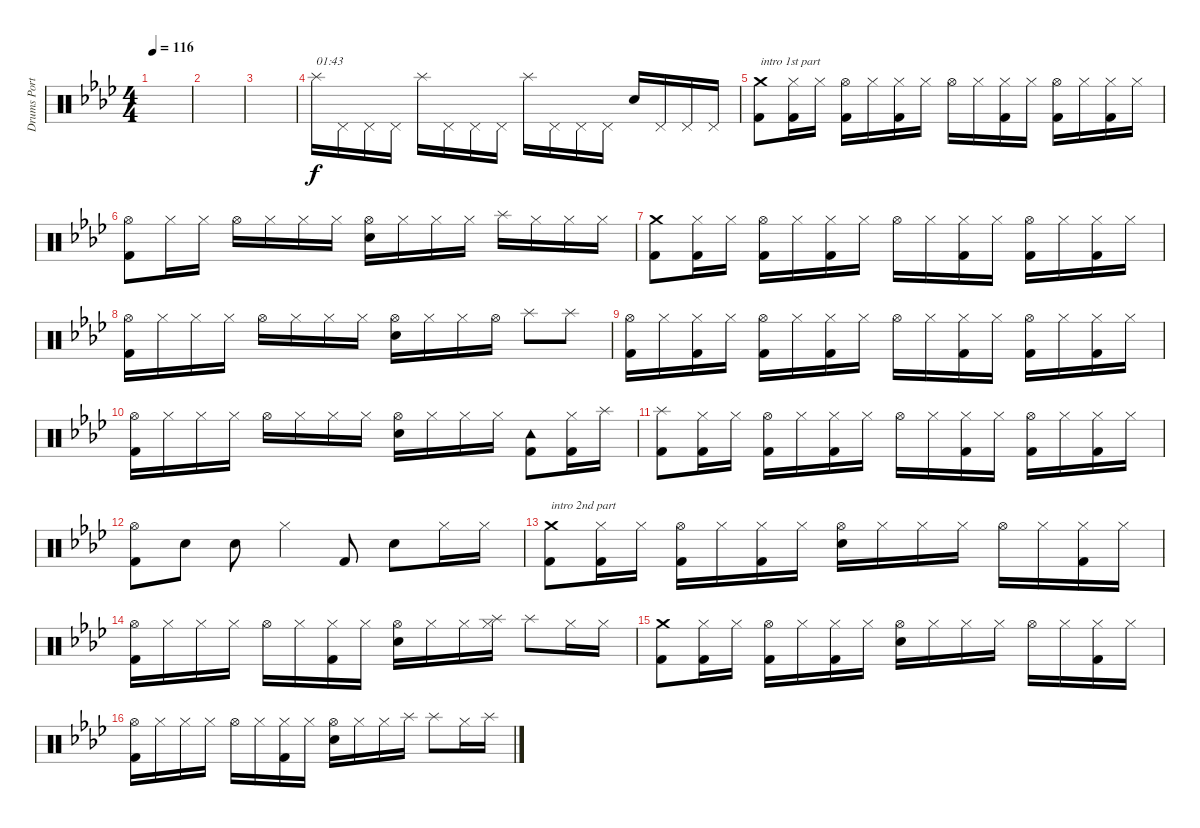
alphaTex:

\track ("Drums Portnoy" "Drums Port") {instrument percussion}
\staff {score}
\articulation defaults
\ts (4 4)
\tempo 116
\clef neutral
\ks ab
|
|
|
"Splash (hit)".16{txt "01:43"} "Pedal Hi-Hat (hit)".16 "Pedal Hi-Hat (hit)".16 "Pedal Hi-Hat (hit)".16 "Splash (hit)".16 "Pedal Hi-Hat (hit)".16 "Pedal Hi-Hat (hit)".16 "Pedal Hi-Hat (hit)".16 "Splash (hit)".16 "Pedal Hi-Hat (hit)".16 "Pedal Hi-Hat (hit)".16 "Pedal Hi-Hat (hit)".16 "Snare (hit) 2".16 "Pedal Hi-Hat (hit)".16 "Pedal Hi-Hat (hit)".16 "Pedal Hi-Hat (hit)".16 |
("Crash medium (hit)" "Kick (hit) 2").8{txt "intro 1st part"} ("Hi-Hat (closed)" "Kick (hit) 2").16 "Hi-Hat (closed)".16 ("Hi-Hat (open)" "Kick (hit) 2").16 "Hi-Hat (closed)".16 ("Hi-Hat (closed)" "Kick (hit) 2").16 "Hi-Hat (closed)".16 "Hi-Hat (open)".16 "Hi-Hat (closed)".16 ("Hi-Hat (closed)" "Kick (hit) 2").16 "Hi-Hat (closed)".16 ("Hi-Hat (open)" "Kick (hit) 2").16 "Hi-Hat (closed)".16 ("Hi-Hat (closed)" "Kick (hit) 2").16 "Hi-Hat (closed)".16 |
("Hi-Hat (open)" "Kick (hit) 2").8 "Hi-Hat (closed)".16 "Hi-Hat (closed)".16 "Hi-Hat (open)".16 "Hi-Hat (closed)".16 "Hi-Hat (closed)".16 "Hi-Hat (closed)".16 ("Hi-Hat (open)" "Snare (hit) 2").16 "Hi-Hat (closed)".16 "Hi-Hat (closed)".16 "Hi-Hat (closed)".16 "Splash (hit)".16 "Hi-Hat (closed)".16 "Hi-Hat (closed)".16 "Hi-Hat (closed)".16 |
("Crash medium (hit)" "Kick (hit) 2").8 ("Hi-Hat (closed)" "Kick (hit) 2").16 "Hi-Hat (closed)".16 ("Hi-Hat (open)" "Kick (hit) 2").16 "Hi-Hat (closed)".16 ("Hi-Hat (closed)" "Kick (hit) 2").16 "Hi-Hat (closed)".16 "Hi-Hat (open)".16 "Hi-Hat (closed)".16 ("Hi-Hat (closed)" "Kick (hit) 2").16 "Hi-Hat (closed)".16 ("Hi-Hat (open)" "Kick (hit) 2").16 "Hi-Hat (closed)".16 ("Hi-Hat (closed)" "Kick (hit) 2").16 "Hi-Hat (closed)".16 |
("Hi-Hat (open)" "Kick (hit) 2").16 "Hi-Hat (closed)".16 "Hi-Hat (closed)".16 "Hi-Hat (closed)".16 "Hi-Hat (open)".16 "Hi-Hat (closed)".16 "Hi-Hat (closed)".16 "Hi-Hat (closed)".16 ("Hi-Hat (open)" "Snare (hit) 2").16 "Hi-Hat (closed)".16 "Hi-Hat (closed)".16 "Hi-Hat (open)".16 "Splash (hit)".8 "Splash (hit)".8 |
("Hi-Hat (open)" "Kick (hit) 2").16 "Hi-Hat (closed)".16 ("Hi-Hat (closed)" "Kick (hit) 2").16 "Hi-Hat (closed)".16 ("Hi-Hat (open)" "Kick (hit) 2").16 "Hi-Hat (closed)".16 ("Hi-Hat (closed)" "Kick (hit) 2").16 "Hi-Hat (closed)".16 "Hi-Hat (open)".16 "Hi-Hat (closed)".16 ("Hi-Hat (closed)" "Kick (hit) 2").16 "Hi-Hat (closed)".16 ("Hi-Hat (open)" "Kick (hit) 2").16 "Hi-Hat (closed)".16 ("Hi-Hat (closed)" "Kick (hit) 2").16 "Hi-Hat (closed)".16 |
("Hi-Hat (open)" "Kick (hit) 2").16 "Hi-Hat (closed)".16 "Hi-Hat (closed)".16 "Hi-Hat (closed)".16 "Hi-Hat (open)".16 "Hi-Hat (closed)".16 "Hi-Hat (closed)".16 "Hi-Hat (closed)".16 ("Hi-Hat (open)" "Snare (hit) 2").16 "Hi-Hat (closed)".16 "Hi-Hat (closed)".16 "Hi-Hat (closed)".16 ("Tambourine (hit)" "Kick (hit) 2").8 ("Hi-Hat (closed)" "Kick (hit) 2").16 "Splash (hit)".16 |
("Splash (hit)" "Kick (hit) 2").8 ("Hi-Hat (closed)" "Kick (hit) 2").16 "Hi-Hat (closed)".16 ("Hi-Hat (open)" "Kick (hit) 2").16 "Hi-Hat (closed)".16 ("Hi-Hat (closed)" "Kick (hit) 2").16 "Hi-Hat (closed)".16 "Hi-Hat (open)".16 "Hi-Hat (closed)".16 ("Hi-Hat (closed)" "Kick (hit) 2").16 "Hi-Hat (closed)".16 ("Hi-Hat (open)" "Kick (hit) 2").16 "Hi-Hat (closed)".16 ("Hi-Hat (closed)" "Kick (hit) 2").16 "Hi-Hat (closed)".16 |
("Hi-Hat (open)" "Kick (hit) 2").8 "Snare (hit) 2".8 "Snare (hit) 2".8 "Hi-Hat (closed)".4 "Kick (hit) 2".8 "Snare (hit) 2".8 "Hi-Hat (closed)".16 "Hi-Hat (closed)".16 |
("Crash medium (hit)" "Kick (hit) 2").8{txt "intro 2nd part"} ("Hi-Hat (closed)" "Kick (hit) 2").16 "Hi-Hat (closed)".16 ("Hi-Hat (open)" "Kick (hit) 2").16 "Hi-Hat (closed)".16 ("Hi-Hat (closed)" "Kick (hit) 2").16 "Hi-Hat (closed)".16 ("Hi-Hat (open)" "Snare (hit) 2").16 "Hi-Hat (closed)".16 "Hi-Hat (closed)".16 "Hi-Hat (closed)".16 "Hi-Hat (open)".16 "Hi-Hat (closed)".16 ("Hi-Hat (closed)" "Kick (hit) 2").16 "Hi-Hat (closed)".16 |
("Hi-Hat (open)" "Kick (hit) 2").16 "Hi-Hat (closed)".16 "Hi-Hat (closed)".16 "Hi-Hat (closed)".16 "Hi-Hat (open)".16 "Hi-Hat (closed)".16 ("Hi-Hat (closed)" "Kick (hit) 2").16 "Hi-Hat (closed)".16 ("Hi-Hat (open)" "Snare (hit) 2").16 "Hi-Hat (closed)".16 "Hi-Hat (closed)".16 ("Splash (hit)" "Hi-Hat (closed)").16 "Splash (hit)".8 "Hi-Hat (closed)".16 "Hi-Hat (closed)".16 |
("Crash medium (hit)" "Kick (hit) 2").8 ("Hi-Hat (closed)" "Kick (hit) 2").16 "Hi-Hat (closed)".16 ("Hi-Hat (open)" "Kick (hit) 2").16 "Hi-Hat (closed)".16 ("Hi-Hat (closed)" "Kick (hit) 2").16 "Hi-Hat (closed)".16 ("Hi-Hat (open)" "Snare (hit) 2").16 "Hi-Hat (closed)".16 "Hi-Hat (closed)".16 "Hi-Hat (closed)".16 "Hi-Hat (open)".16 "Hi-Hat (closed)".16 ("Hi-Hat (closed)" "Kick (hit) 2").16 "Hi-Hat (closed)".16 |
("Hi-Hat (open)" "Kick (hit) 2").16 "Hi-Hat (closed)".16 "Hi-Hat (closed)".16 "Hi-Hat (closed)".16 "Hi-Hat (open)".16 "Hi-Hat (closed)".16 ("Hi-Hat (closed)" "Kick (hit) 2").16 "Hi-Hat (closed)".16 ("Hi-Hat (open)" "Snare (hit) 2").16 "Hi-Hat (closed)".16 "Hi-Hat (closed)".16 "Splash (hit)".16 "Splash (hit)".8 "Hi-Hat (closed)".16 "Splash (hit)".16
